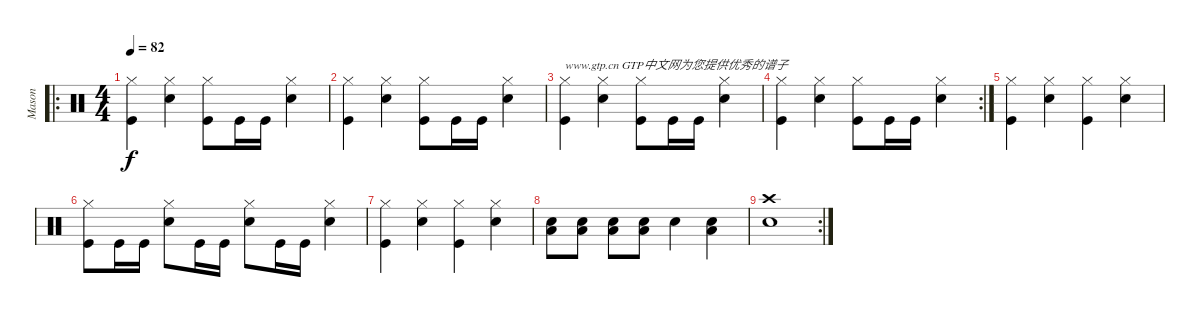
\track ("Mason" "Mason") {instrument percussion}
\staff {score}
\articulation defaults
\ro
\ts (4 4)
\tempo 82
\clef neutral
\ks c
("Kick (hit)" "Hi-Hat (closed)").4{dy f} ("Snare (hit) 2" "Hi-Hat (closed)").4 ("Kick (hit)" "Hi-Hat (closed)").8 "Kick (hit)".16 "Kick (hit)".16 ("Snare (hit) 2" "Hi-Hat (closed)").4 |
("Kick (hit)" "Hi-Hat (closed)").4 ("Snare (hit) 2" "Hi-Hat (closed)").4 ("Kick (hit)" "Hi-Hat (closed)").8 "Kick (hit)".16 "Kick (hit)".16 ("Snare (hit) 2" "Hi-Hat (closed)").4 |
("Kick (hit)" "Hi-Hat (closed)").4{txt "www.gtp.cn GTP中文网为您提供优秀的谱子"} ("Snare (hit) 2" "Hi-Hat (closed)").4 ("Kick (hit)" "Hi-Hat (closed)").8 "Kick (hit)".16 "Kick (hit)".16 ("Snare (hit) 2" "Hi-Hat (closed)").4 |
\rc 2
("Kick (hit)" "Hi-Hat (closed)").4 ("Snare (hit) 2" "Hi-Hat (closed)").4 ("Kick (hit)" "Hi-Hat (closed)").8 "Kick (hit)".16 "Kick (hit)".16 ("Snare (hit) 2" "Hi-Hat (closed)").4 |
("Kick (hit)" "Hi-Hat (closed)").4 ("Snare (hit) 2" "Hi-Hat (closed)").4 ("Kick (hit)" "Hi-Hat (closed)").4 ("Snare (hit) 2" "Hi-Hat (closed)").4 |
("Kick (hit)" "Hi-Hat (closed)").8 "Kick (hit)".16 "Kick (hit)".16 ("Snare (hit) 2" "Hi-Hat (closed)").8 "Kick (hit)".16 "Kick (hit)".16 ("Snare (hit) 2" "Hi-Hat (closed)").8 "Kick (hit)".16 "Kick (hit)".16 ("Snare (hit) 2" "Hi-Hat (closed)").4 |
("Kick (hit)" "Hi-Hat (closed)").4 ("Snare (hit) 2" "Hi-Hat (closed)").4 ("Kick (hit)" "Hi-Hat (closed)").4 ("Snare (hit) 2" "Hi-Hat (closed)").4 |
("Snare (hit) 2" "Low Tom (hit)").8 ("Snare (hit) 2" "Low Tom (hit)").8 ("Snare (hit) 2" "Low Tom (hit)").8 ("Snare (hit) 2" "Low Tom (hit)").8 "Snare (hit) 2".4 ("Snare (hit) 2" "Low Tom (hit)").4 |
\rc 2
("Snare (hit) 2" "Crash high (hit)").1
